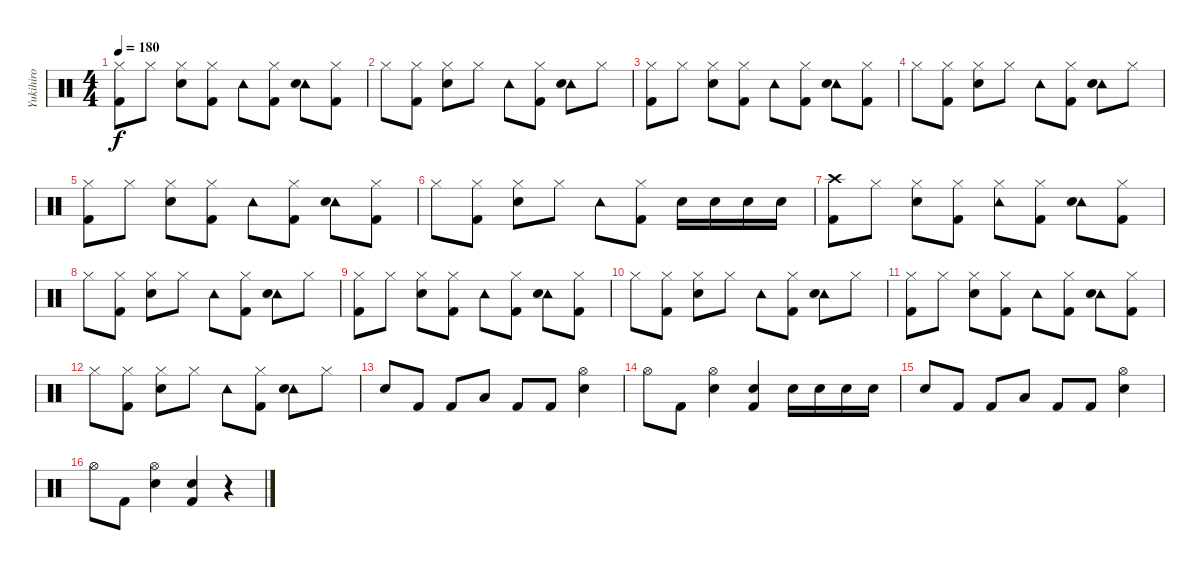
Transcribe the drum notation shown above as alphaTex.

\track ("Yukihiro" "Yukihiro") {instrument percussion}
\staff {score}
\articulation defaults
\ts (4 4)
\tempo 180
\clef neutral
\ks c
("Hi-Hat (closed)" "Kick (hit) 2").8{dy f} "Hi-Hat (closed)".8 ("Hi-Hat (closed)" "Electric Snare (hit)").8 ("Hi-Hat (closed)" "Kick (hit) 2").8 "Tambourine (hit)".8 ("Hi-Hat (closed)" "Kick (hit) 2").8 ("Tambourine (hit)" "Electric Snare (hit)").8 ("Hi-Hat (closed)" "Kick (hit) 2").8 |
"Hi-Hat (closed)".8 ("Hi-Hat (closed)" "Kick (hit) 2").8 ("Hi-Hat (closed)" "Electric Snare (hit)").8 "Hi-Hat (closed)".8 "Tambourine (hit)".8 ("Hi-Hat (closed)" "Kick (hit) 2").8 ("Tambourine (hit)" "Electric Snare (hit)").8 "Hi-Hat (closed)".8 |
("Hi-Hat (closed)" "Kick (hit) 2").8 "Hi-Hat (closed)".8 ("Hi-Hat (closed)" "Electric Snare (hit)").8 ("Hi-Hat (closed)" "Kick (hit) 2").8 "Tambourine (hit)".8 ("Hi-Hat (closed)" "Kick (hit) 2").8 ("Tambourine (hit)" "Electric Snare (hit)").8 ("Hi-Hat (closed)" "Kick (hit) 2").8 |
"Hi-Hat (closed)".8 ("Hi-Hat (closed)" "Kick (hit) 2").8 ("Hi-Hat (closed)" "Electric Snare (hit)").8 "Hi-Hat (closed)".8 "Tambourine (hit)".8 ("Hi-Hat (closed)" "Kick (hit) 2").8 ("Tambourine (hit)" "Electric Snare (hit)").8 "Hi-Hat (closed)".8 |
("Hi-Hat (closed)" "Kick (hit) 2").8 "Hi-Hat (closed)".8 ("Hi-Hat (closed)" "Electric Snare (hit)").8 ("Hi-Hat (closed)" "Kick (hit) 2").8 "Tambourine (hit)".8 ("Hi-Hat (closed)" "Kick (hit) 2").8 ("Tambourine (hit)" "Electric Snare (hit)").8 ("Hi-Hat (closed)" "Kick (hit) 2").8 |
"Hi-Hat (closed)".8 ("Hi-Hat (closed)" "Kick (hit) 2").8 ("Hi-Hat (closed)" "Electric Snare (hit)").8 "Hi-Hat (closed)".8 "Tambourine (hit)".8 ("Hi-Hat (closed)" "Kick (hit) 2").8 "Electric Snare (hit)".16 "Electric Snare (hit)".16 "Electric Snare (hit)".16 "Electric Snare (hit)".16 |
("Crash high (hit)" "Kick (hit) 2").8 "Hi-Hat (closed)".8 ("Hi-Hat (closed)" "Electric Snare (hit)").8 ("Hi-Hat (closed)" "Kick (hit) 2").8 ("Hi-Hat (closed)" "Tambourine (hit)").8 ("Hi-Hat (closed)" "Kick (hit) 2").8 ("Tambourine (hit)" "Electric Snare (hit)").8 ("Hi-Hat (closed)" "Kick (hit) 2").8 |
"Hi-Hat (closed)".8 ("Hi-Hat (closed)" "Kick (hit) 2").8 ("Hi-Hat (closed)" "Electric Snare (hit)").8 "Hi-Hat (closed)".8 "Tambourine (hit)".8 ("Hi-Hat (closed)" "Kick (hit) 2").8 ("Tambourine (hit)" "Electric Snare (hit)").8 "Hi-Hat (closed)".8 |
("Hi-Hat (closed)" "Kick (hit) 2").8 "Hi-Hat (closed)".8 ("Hi-Hat (closed)" "Electric Snare (hit)").8 ("Hi-Hat (closed)" "Kick (hit) 2").8 "Tambourine (hit)".8 ("Hi-Hat (closed)" "Kick (hit) 2").8 ("Tambourine (hit)" "Electric Snare (hit)").8 ("Hi-Hat (closed)" "Kick (hit) 2").8 |
"Hi-Hat (closed)".8 ("Hi-Hat (closed)" "Kick (hit) 2").8 ("Hi-Hat (closed)" "Electric Snare (hit)").8 "Hi-Hat (closed)".8 "Tambourine (hit)".8 ("Hi-Hat (closed)" "Kick (hit) 2").8 ("Tambourine (hit)" "Electric Snare (hit)").8 "Hi-Hat (closed)".8 |
("Hi-Hat (closed)" "Kick (hit) 2").8 "Hi-Hat (closed)".8 ("Hi-Hat (closed)" "Electric Snare (hit)").8 ("Hi-Hat (closed)" "Kick (hit) 2").8 "Tambourine (hit)".8 ("Hi-Hat (closed)" "Kick (hit) 2").8 ("Tambourine (hit)" "Electric Snare (hit)").8 ("Hi-Hat (closed)" "Kick (hit) 2").8 |
"Hi-Hat (closed)".8 ("Hi-Hat (closed)" "Kick (hit) 2").8 ("Hi-Hat (closed)" "Electric Snare (hit)").8 "Hi-Hat (closed)".8 "Tambourine (hit)".8 ("Hi-Hat (closed)" "Kick (hit) 2").8 ("Tambourine (hit)" "Electric Snare (hit)").8 "Hi-Hat (closed)".8 |
"Electric Snare (hit)".8 "Kick (hit) 2".8 "Kick (hit) 2".8 "Low Tom (hit)".8 "Kick (hit) 2".8 "Kick (hit) 2".8 ("Hi-Hat (open)" "Electric Snare (hit)").4 |
"Hi-Hat (open)".8 "Kick (hit) 2".8 ("Hi-Hat (open)" "Electric Snare (hit)").4 ("Electric Snare (hit)" "Kick (hit) 2").4 "Electric Snare (hit)".16 "Electric Snare (hit)".16 "Electric Snare (hit)".16 "Electric Snare (hit)".16 |
"Electric Snare (hit)".8 "Kick (hit) 2".8 "Kick (hit) 2".8 "Low Tom (hit)".8 "Kick (hit) 2".8 "Kick (hit) 2".8 ("Hi-Hat (open)" "Electric Snare (hit)").4 |
"Hi-Hat (open)".8 "Kick (hit) 2".8 ("Hi-Hat (open)" "Electric Snare (hit)").4 ("Electric Snare (hit)" "Kick (hit) 2").4 r.4
